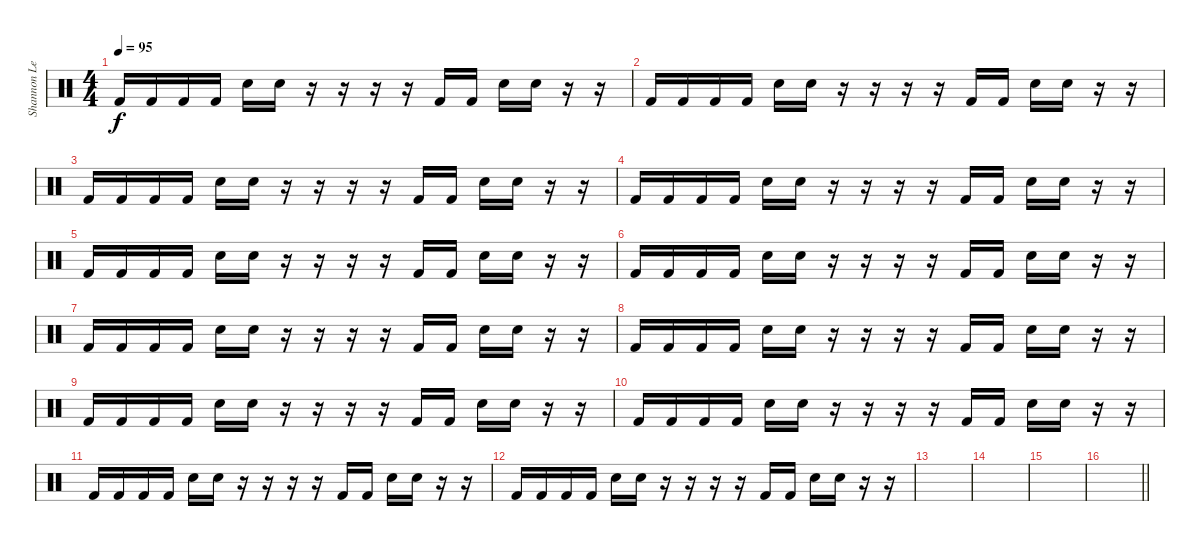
\track ("Shannon Leto (Percussion)" "Shannon Le") {instrument percussion}
\staff {score}
\articulation defaults
\ts (4 4)
\tempo 95
\clef neutral
\ks c "Kick (hit) 2".16{dy f} "Kick (hit) 2".16 "Kick (hit) 2".16 "Kick (hit) 2".16 "Snare (hit) 2".16 "Snare (hit) 2".16
r.16 r.16 r.16 r.16 "Kick (hit) 2".16 "Kick (hit) 2".16 "Snare (hit) 2".16 "Snare (hit) 2".16 r.16 r.16 |
"Kick (hit) 2".16 "Kick (hit) 2".16 "Kick (hit) 2".16 "Kick (hit) 2".16 "Snare (hit) 2".16 "Snare (hit) 2".16 r.16 r.16 r.16 r.16 "Kick (hit) 2".16 "Kick (hit) 2".16 "Snare (hit) 2".16 "Snare (hit) 2".16 r.16 r.16 |
"Kick (hit) 2".16 "Kick (hit) 2".16 "Kick (hit) 2".16 "Kick (hit) 2".16 "Snare (hit) 2".16 "Snare (hit) 2".16 r.16 r.16 r.16 r.16 "Kick (hit) 2".16 "Kick (hit) 2".16 "Snare (hit) 2".16 "Snare (hit) 2".16 r.16 r.16 |
"Kick (hit) 2".16 "Kick (hit) 2".16 "Kick (hit) 2".16 "Kick (hit) 2".16 "Snare (hit) 2".16 "Snare (hit) 2".16 r.16 r.16 r.16 r.16 "Kick (hit) 2".16 "Kick (hit) 2".16 "Snare (hit) 2".16 "Snare (hit) 2".16 r.16 r.16 |
"Kick (hit) 2".16 "Kick (hit) 2".16 "Kick (hit) 2".16 "Kick (hit) 2".16 "Snare (hit) 2".16 "Snare (hit) 2".16 r.16 r.16 r.16 r.16 "Kick (hit) 2".16 "Kick (hit) 2".16 "Snare (hit) 2".16 "Snare (hit) 2".16 r.16 r.16 |
"Kick (hit) 2".16 "Kick (hit) 2".16 "Kick (hit) 2".16 "Kick (hit) 2".16 "Snare (hit) 2".16 "Snare (hit) 2".16 r.16 r.16 r.16 r.16 "Kick (hit) 2".16 "Kick (hit) 2".16 "Snare (hit) 2".16 "Snare (hit) 2".16 r.16 r.16 |
"Kick (hit) 2".16 "Kick (hit) 2".16 "Kick (hit) 2".16 "Kick (hit) 2".16 "Snare (hit) 2".16 "Snare (hit) 2".16 r.16 r.16 r.16 r.16 "Kick (hit) 2".16 "Kick (hit) 2".16 "Snare (hit) 2".16 "Snare (hit) 2".16 r.16 r.16 |
"Kick (hit) 2".16 "Kick (hit) 2".16 "Kick (hit) 2".16 "Kick (hit) 2".16 "Snare (hit) 2".16 "Snare (hit) 2".16 r.16 r.16 r.16 r.16 "Kick (hit) 2".16 "Kick (hit) 2".16 "Snare (hit) 2".16 "Snare (hit) 2".16 r.16 r.16 |
"Kick (hit) 2".16 "Kick (hit) 2".16 "Kick (hit) 2".16 "Kick (hit) 2".16 "Snare (hit) 2".16 "Snare (hit) 2".16 r.16 r.16 r.16 r.16 "Kick (hit) 2".16 "Kick (hit) 2".16 "Snare (hit) 2".16 "Snare (hit) 2".16 r.16 r.16 |
"Kick (hit) 2".16 "Kick (hit) 2".16 "Kick (hit) 2".16 "Kick (hit) 2".16 "Snare (hit) 2".16 "Snare (hit) 2".16 r.16 r.16 r.16 r.16 "Kick (hit) 2".16 "Kick (hit) 2".16 "Snare (hit) 2".16 "Snare (hit) 2".16 r.16 r.16 |
"Kick (hit) 2".16 "Kick (hit) 2".16 "Kick (hit) 2".16 "Kick (hit) 2".16 "Snare (hit) 2".16 "Snare (hit) 2".16 r.16 r.16 r.16 r.16 "Kick (hit) 2".16 "Kick (hit) 2".16 "Snare (hit) 2".16 "Snare (hit) 2".16 r.16 r.16 |
"Kick (hit) 2".16 "Kick (hit) 2".16 "Kick (hit) 2".16 "Kick (hit) 2".16 "Snare (hit) 2".16 "Snare (hit) 2".16 r.16 r.16 r.16 r.16 "Kick (hit) 2".16 "Kick (hit) 2".16 "Snare (hit) 2".16 "Snare (hit) 2".16 r.16 r.16 |
|
|
|
\barLineRight lightlight
